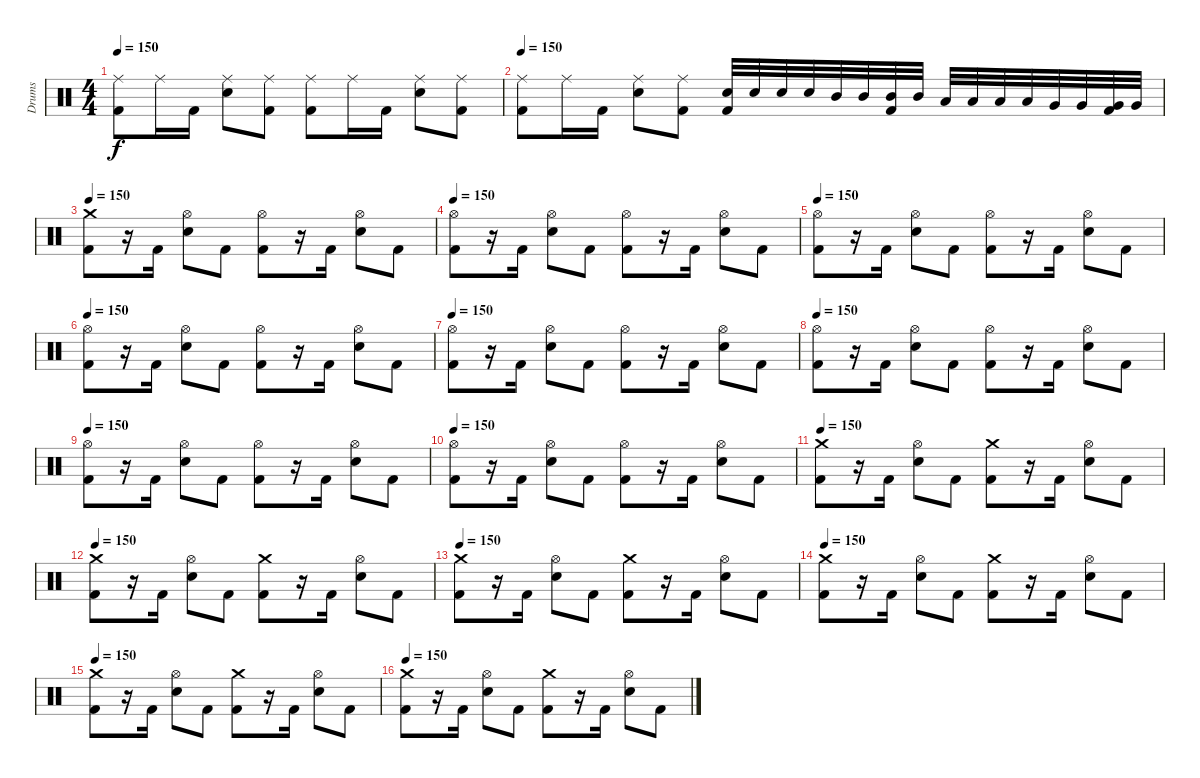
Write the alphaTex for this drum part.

\track ("Drums" "Drums") {instrument percussion}
\staff {score}
\articulation defaults
\ts (4 4)
\tempo 150
\clef neutral
\ks c
("Kick (hit) 2" "Ride (middle)").8{dy f} "Ride (middle)".16 "Kick (hit) 2".16 ("Electric Snare (hit)" "Ride (middle)").8 ("Kick (hit) 2" "Ride (middle)").8 ("Kick (hit) 2" "Ride (middle)").8 "Ride (middle)".16 "Kick (hit) 2".16 ("Electric Snare (hit)" "Ride (middle)").8 ("Kick (hit) 2" "Ride (middle)").8 |
\tempo 150
("Kick (hit) 2" "Ride (middle)").8 "Ride (middle)".16 "Kick (hit) 2".16 ("Electric Snare (hit)" "Ride (middle)").8 ("Kick (hit) 2" "Ride (middle)").8 ("Snare (hit) 2" "Kick (hit) 2").32 "Snare (hit) 2".32 "Snare (hit) 2".32 "Snare (hit) 2".32 "Mid Tom (hit)".32 "Mid Tom (hit)".32 ("Mid Tom (hit)" "Kick (hit) 2").32 "Mid Tom (hit)".32 "Low Tom (hit)".32 "Low Tom (hit)".32 "Low Tom (hit)".32 "Low Tom (hit)".32 "Very Low Tom (hit)".32 "Very Low Tom (hit)".32 ("Very Low Tom (hit)" "Kick (hit) 2").32 "Very Low Tom (hit)".32 |
\tempo 150
("Kick (hit) 2" "Crash medium (hit)").8 r.16 "Kick (hit) 2".16 ("Electric Snare (hit)" "Hi-Hat (open)").8 "Kick (hit) 2".8 ("Kick (hit) 2" "Hi-Hat (open)").8 r.16 "Kick (hit) 2".16 ("Electric Snare (hit)" "Hi-Hat (open)").8 "Kick (hit) 2".8 |
\tempo 150
("Kick (hit) 2" "Hi-Hat (open)").8 r.16 "Kick (hit) 2".16 ("Electric Snare (hit)" "Hi-Hat (open)").8 "Kick (hit) 2".8 ("Kick (hit) 2" "Hi-Hat (open)").8 r.16 "Kick (hit) 2".16 ("Electric Snare (hit)" "Hi-Hat (open)").8 "Kick (hit) 2".8 |
\tempo 150
("Kick (hit) 2" "Hi-Hat (open)").8 r.16 "Kick (hit) 2".16 ("Electric Snare (hit)" "Hi-Hat (open)").8 "Kick (hit) 2".8 ("Kick (hit) 2" "Hi-Hat (open)").8 r.16 "Kick (hit) 2".16 ("Electric Snare (hit)" "Hi-Hat (open)").8 "Kick (hit) 2".8 |
\tempo 150
("Kick (hit) 2" "Hi-Hat (open)").8 r.16 "Kick (hit) 2".16 ("Electric Snare (hit)" "Hi-Hat (open)").8 "Kick (hit) 2".8 ("Kick (hit) 2" "Hi-Hat (open)").8 r.16 "Kick (hit) 2".16 ("Electric Snare (hit)" "Hi-Hat (open)").8 "Kick (hit) 2".8 |
\tempo 150
("Kick (hit) 2" "Hi-Hat (open)").8 r.16 "Kick (hit) 2".16 ("Electric Snare (hit)" "Hi-Hat (open)").8 "Kick (hit) 2".8 ("Kick (hit) 2" "Hi-Hat (open)").8 r.16 "Kick (hit) 2".16 ("Electric Snare (hit)" "Hi-Hat (open)").8 "Kick (hit) 2".8 |
\tempo 150
("Kick (hit) 2" "Hi-Hat (open)").8 r.16 "Kick (hit) 2".16 ("Electric Snare (hit)" "Hi-Hat (open)").8 "Kick (hit) 2".8 ("Kick (hit) 2" "Hi-Hat (open)").8 r.16 "Kick (hit) 2".16 ("Electric Snare (hit)" "Hi-Hat (open)").8 "Kick (hit) 2".8 |
\tempo 150
("Kick (hit) 2" "Hi-Hat (open)").8 r.16 "Kick (hit) 2".16 ("Electric Snare (hit)" "Hi-Hat (open)").8 "Kick (hit) 2".8 ("Kick (hit) 2" "Hi-Hat (open)").8 r.16 "Kick (hit) 2".16 ("Electric Snare (hit)" "Hi-Hat (open)").8 "Kick (hit) 2".8 |
\tempo 150
("Kick (hit) 2" "Hi-Hat (open)").8 r.16 "Kick (hit) 2".16 ("Electric Snare (hit)" "Hi-Hat (open)").8 "Kick (hit) 2".8 ("Kick (hit) 2" "Hi-Hat (open)").8 r.16 "Kick (hit) 2".16 ("Electric Snare (hit)" "Hi-Hat (open)").8 "Kick (hit) 2".8 |
\tempo 150
("Kick (hit) 2" "Crash medium (hit)").8 r.16 "Kick (hit) 2".16 ("Electric Snare (hit)" "Hi-Hat (open)").8 "Kick (hit) 2".8 ("Kick (hit) 2" "Crash medium (hit)").8 r.16 "Kick (hit) 2".16 ("Electric Snare (hit)" "Hi-Hat (open)").8 "Kick (hit) 2".8 |
\tempo 150
("Kick (hit) 2" "Crash medium (hit)").8 r.16 "Kick (hit) 2".16 ("Electric Snare (hit)" "Hi-Hat (open)").8 "Kick (hit) 2".8 ("Kick (hit) 2" "Crash medium (hit)").8 r.16 "Kick (hit) 2".16 ("Electric Snare (hit)" "Hi-Hat (open)").8 "Kick (hit) 2".8 |
\tempo 150
("Kick (hit) 2" "Crash medium (hit)").8 r.16 "Kick (hit) 2".16 ("Electric Snare (hit)" "Hi-Hat (open)").8 "Kick (hit) 2".8 ("Kick (hit) 2" "Crash medium (hit)").8 r.16 "Kick (hit) 2".16 ("Electric Snare (hit)" "Hi-Hat (open)").8 "Kick (hit) 2".8 |
\tempo 150
("Kick (hit) 2" "Crash medium (hit)").8 r.16 "Kick (hit) 2".16 ("Electric Snare (hit)" "Hi-Hat (open)").8 "Kick (hit) 2".8 ("Kick (hit) 2" "Crash medium (hit)").8 r.16 "Kick (hit) 2".16 ("Electric Snare (hit)" "Hi-Hat (open)").8 "Kick (hit) 2".8 |
\tempo 150
("Kick (hit) 2" "Crash medium (hit)").8 r.16 "Kick (hit) 2".16 ("Electric Snare (hit)" "Hi-Hat (open)").8 "Kick (hit) 2".8 ("Kick (hit) 2" "Crash medium (hit)").8 r.16 "Kick (hit) 2".16 ("Electric Snare (hit)" "Hi-Hat (open)").8 "Kick (hit) 2".8 |
\tempo 150
("Kick (hit) 2" "Crash medium (hit)").8 r.16 "Kick (hit) 2".16 ("Electric Snare (hit)" "Hi-Hat (open)").8 "Kick (hit) 2".8 ("Kick (hit) 2" "Crash medium (hit)").8 r.16 "Kick (hit) 2".16 ("Electric Snare (hit)" "Hi-Hat (open)").8 "Kick (hit) 2".8
